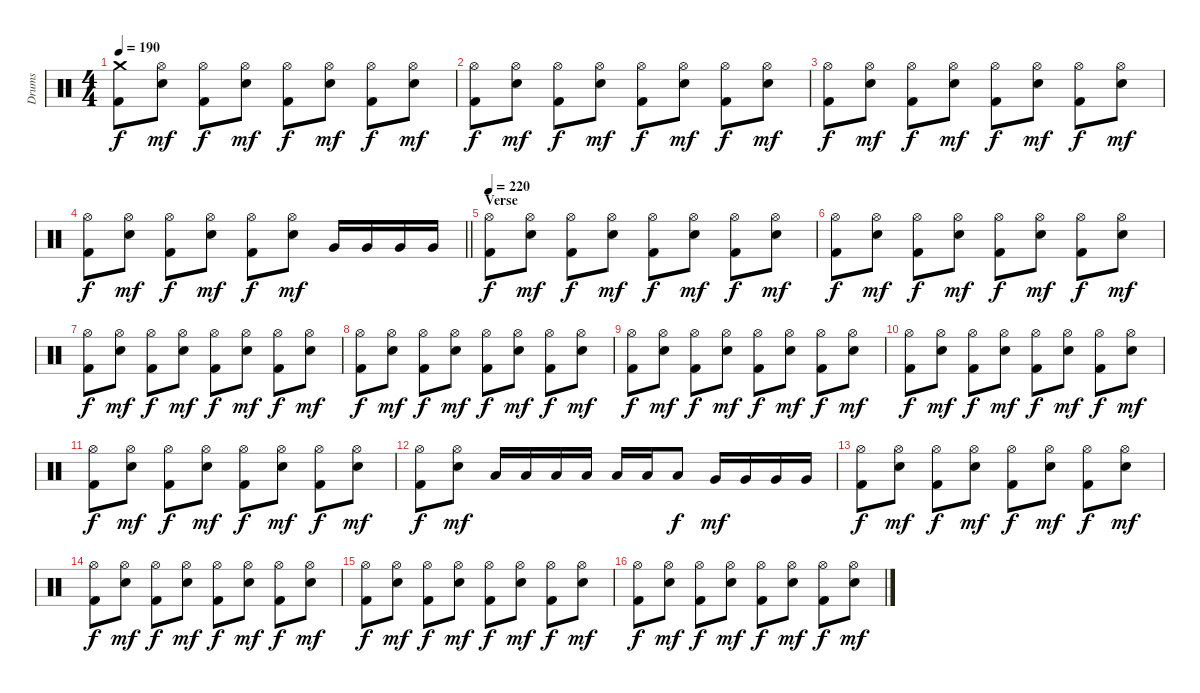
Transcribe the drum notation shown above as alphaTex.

\track ("Drums" "Drums") {instrument percussion}
\staff {score}
\articulation defaults
\ts (4 4)
\tempo 190
\clef neutral
\ks c
("Crash medium (hit)" "Kick (hit) 2").8{dy f} ("Hi-Hat (open)" "Snare (hit) 2").8{dy mf} ("Hi-Hat (open)" "Kick (hit) 2").8{dy f} ("Hi-Hat (open)" "Snare (hit) 2").8{dy mf} ("Hi-Hat (open)" "Kick (hit) 2").8{dy f} ("Hi-Hat (open)" "Snare (hit) 2").8{dy mf} ("Hi-Hat (open)" "Kick (hit) 2").8{dy f} ("Hi-Hat (open)" "Snare (hit) 2").8{dy mf} |
("Hi-Hat (open)" "Kick (hit) 2").8{dy f} ("Hi-Hat (open)" "Snare (hit) 2").8{dy mf} ("Hi-Hat (open)" "Kick (hit) 2").8{dy f} ("Hi-Hat (open)" "Snare (hit) 2").8{dy mf} ("Hi-Hat (open)" "Kick (hit) 2").8{dy f} ("Hi-Hat (open)" "Snare (hit) 2").8{dy mf} ("Hi-Hat (open)" "Kick (hit) 2").8{dy f} ("Hi-Hat (open)" "Snare (hit) 2").8{dy mf} |
("Hi-Hat (open)" "Kick (hit) 2").8{dy f} ("Hi-Hat (open)" "Snare (hit) 2").8{dy mf} ("Hi-Hat (open)" "Kick (hit) 2").8{dy f} ("Hi-Hat (open)" "Snare (hit) 2").8{dy mf} ("Hi-Hat (open)" "Kick (hit) 2").8{dy f} ("Hi-Hat (open)" "Snare (hit) 2").8{dy mf} ("Hi-Hat (open)" "Kick (hit) 2").8{dy f} ("Hi-Hat (open)" "Snare (hit) 2").8{dy mf} |
\barLineRight lightlight
("Hi-Hat (open)" "Kick (hit) 2").8{dy f} ("Hi-Hat (open)" "Snare (hit) 2").8{dy mf} ("Hi-Hat (open)" "Kick (hit) 2").8{dy f} ("Hi-Hat (open)" "Snare (hit) 2").8{dy mf} ("Hi-Hat (open)" "Kick (hit) 2").8{dy f} ("Hi-Hat (open)" "Snare (hit) 2").8{dy mf} "Very Low Tom (hit)".16 "Very Low Tom (hit)".16 "Very Low Tom (hit)".16 "Very Low Tom (hit)".16 |
\section ("" "Verse")
\tempo 220
("Hi-Hat (open)" "Kick (hit) 2").8{dy f} ("Hi-Hat (open)" "Snare (hit) 2").8{dy mf} ("Hi-Hat (open)" "Kick (hit) 2").8{dy f} ("Hi-Hat (open)" "Snare (hit) 2").8{dy mf} ("Hi-Hat (open)" "Kick (hit) 2").8{dy f} ("Hi-Hat (open)" "Snare (hit) 2").8{dy mf} ("Hi-Hat (open)" "Kick (hit) 2").8{dy f} ("Hi-Hat (open)" "Snare (hit) 2").8{dy mf} |
("Hi-Hat (open)" "Kick (hit) 2").8{dy f} ("Hi-Hat (open)" "Snare (hit) 2").8{dy mf} ("Hi-Hat (open)" "Kick (hit) 2").8{dy f} ("Hi-Hat (open)" "Snare (hit) 2").8{dy mf} ("Hi-Hat (open)" "Kick (hit) 2").8{dy f} ("Hi-Hat (open)" "Snare (hit) 2").8{dy mf} ("Hi-Hat (open)" "Kick (hit) 2").8{dy f} ("Hi-Hat (open)" "Snare (hit) 2").8{dy mf} |
("Hi-Hat (open)" "Kick (hit) 2").8{dy f} ("Hi-Hat (open)" "Snare (hit) 2").8{dy mf} ("Hi-Hat (open)" "Kick (hit) 2").8{dy f} ("Hi-Hat (open)" "Snare (hit) 2").8{dy mf} ("Hi-Hat (open)" "Kick (hit) 2").8{dy f} ("Hi-Hat (open)" "Snare (hit) 2").8{dy mf} ("Hi-Hat (open)" "Kick (hit) 2").8{dy f} ("Hi-Hat (open)" "Snare (hit) 2").8{dy mf} |
("Hi-Hat (open)" "Kick (hit) 2").8{dy f} ("Hi-Hat (open)" "Snare (hit) 2").8{dy mf} ("Hi-Hat (open)" "Kick (hit) 2").8{dy f} ("Hi-Hat (open)" "Snare (hit) 2").8{dy mf} ("Hi-Hat (open)" "Kick (hit) 2").8{dy f} ("Hi-Hat (open)" "Snare (hit) 2").8{dy mf} ("Hi-Hat (open)" "Kick (hit) 2").8{dy f} ("Hi-Hat (open)" "Snare (hit) 2").8{dy mf} |
("Hi-Hat (open)" "Kick (hit) 2").8{dy f} ("Hi-Hat (open)" "Snare (hit) 2").8{dy mf} ("Hi-Hat (open)" "Kick (hit) 2").8{dy f} ("Hi-Hat (open)" "Snare (hit) 2").8{dy mf} ("Hi-Hat (open)" "Kick (hit) 2").8{dy f} ("Hi-Hat (open)" "Snare (hit) 2").8{dy mf} ("Hi-Hat (open)" "Kick (hit) 2").8{dy f} ("Hi-Hat (open)" "Snare (hit) 2").8{dy mf} |
("Hi-Hat (open)" "Kick (hit) 2").8{dy f} ("Hi-Hat (open)" "Snare (hit) 2").8{dy mf} ("Hi-Hat (open)" "Kick (hit) 2").8{dy f} ("Hi-Hat (open)" "Snare (hit) 2").8{dy mf} ("Hi-Hat (open)" "Kick (hit) 2").8{dy f} ("Hi-Hat (open)" "Snare (hit) 2").8{dy mf} ("Hi-Hat (open)" "Kick (hit) 2").8{dy f} ("Hi-Hat (open)" "Snare (hit) 2").8{dy mf} |
("Hi-Hat (open)" "Kick (hit) 2").8{dy f} ("Hi-Hat (open)" "Snare (hit) 2").8{dy mf} ("Hi-Hat (open)" "Kick (hit) 2").8{dy f} ("Hi-Hat (open)" "Snare (hit) 2").8{dy mf} ("Hi-Hat (open)" "Kick (hit) 2").8{dy f} ("Hi-Hat (open)" "Snare (hit) 2").8{dy mf} ("Hi-Hat (open)" "Kick (hit) 2").8{dy f} ("Hi-Hat (open)" "Snare (hit) 2").8{dy mf} |
("Hi-Hat (open)" "Kick (hit) 2").8{dy f} ("Hi-Hat (open)" "Snare (hit) 2").8{dy mf} "Low Tom (hit)".16 "Low Tom (hit)".16 "Low Tom (hit)".16 "Low Tom (hit)".16 "Low Tom (hit)".16 "Low Tom (hit)".16 "Low Floor Tom (hit)".8{dy f} "Very Low Tom (hit)".16{dy mf} "Very Low Tom (hit)".16 "Very Low Tom (hit)".16 "Very Low Tom (hit)".16 |
("Hi-Hat (open)" "Kick (hit) 2").8{dy f} ("Hi-Hat (open)" "Snare (hit) 2").8{dy mf} ("Hi-Hat (open)" "Kick (hit) 2").8{dy f} ("Hi-Hat (open)" "Snare (hit) 2").8{dy mf} ("Hi-Hat (open)" "Kick (hit) 2").8{dy f} ("Hi-Hat (open)" "Snare (hit) 2").8{dy mf} ("Hi-Hat (open)" "Kick (hit) 2").8{dy f} ("Hi-Hat (open)" "Snare (hit) 2").8{dy mf} |
("Hi-Hat (open)" "Kick (hit) 2").8{dy f} ("Hi-Hat (open)" "Snare (hit) 2").8{dy mf} ("Hi-Hat (open)" "Kick (hit) 2").8{dy f} ("Hi-Hat (open)" "Snare (hit) 2").8{dy mf} ("Hi-Hat (open)" "Kick (hit) 2").8{dy f} ("Hi-Hat (open)" "Snare (hit) 2").8{dy mf} ("Hi-Hat (open)" "Kick (hit) 2").8{dy f} ("Hi-Hat (open)" "Snare (hit) 2").8{dy mf} |
("Hi-Hat (open)" "Kick (hit) 2").8{dy f} ("Hi-Hat (open)" "Snare (hit) 2").8{dy mf} ("Hi-Hat (open)" "Kick (hit) 2").8{dy f} ("Hi-Hat (open)" "Snare (hit) 2").8{dy mf} ("Hi-Hat (open)" "Kick (hit) 2").8{dy f} ("Hi-Hat (open)" "Snare (hit) 2").8{dy mf} ("Hi-Hat (open)" "Kick (hit) 2").8{dy f} ("Hi-Hat (open)" "Snare (hit) 2").8{dy mf} |
("Hi-Hat (open)" "Kick (hit) 2").8{dy f} ("Hi-Hat (open)" "Snare (hit) 2").8{dy mf} ("Hi-Hat (open)" "Kick (hit) 2").8{dy f} ("Hi-Hat (open)" "Snare (hit) 2").8{dy mf} ("Hi-Hat (open)" "Kick (hit) 2").8{dy f} ("Hi-Hat (open)" "Snare (hit) 2").8{dy mf} ("Hi-Hat (open)" "Kick (hit) 2").8{dy f} ("Hi-Hat (open)" "Snare (hit) 2").8{dy mf}
